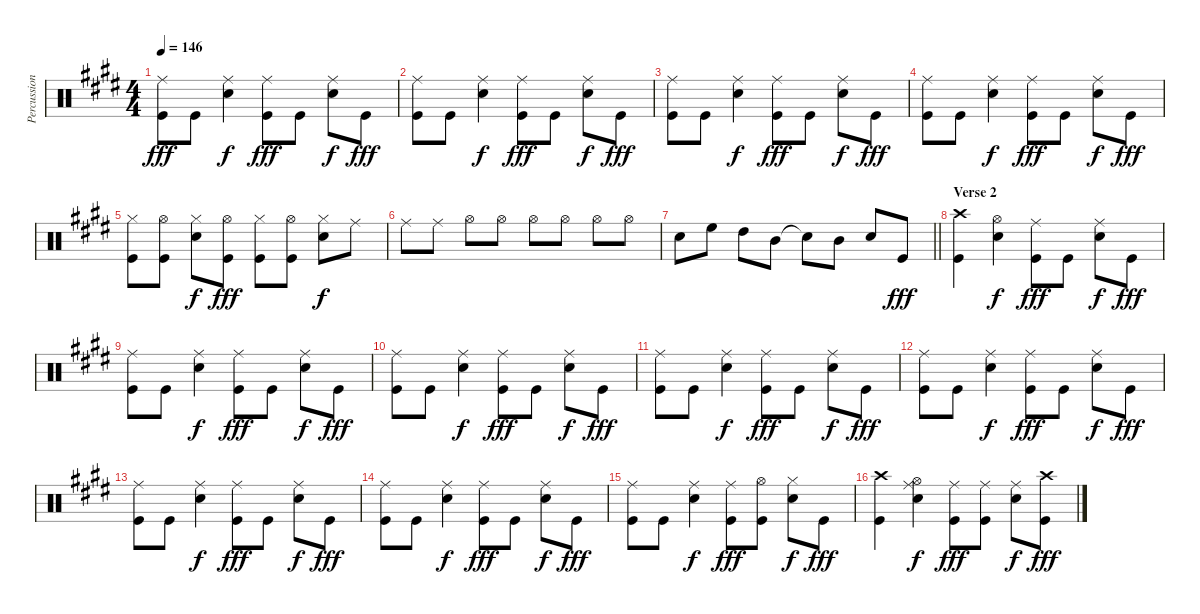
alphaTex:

\track ("Percussion" "Percussion") {instrument percussion}
\staff {score}
\articulation defaults
\ts (4 4)
\tempo 146
\clef neutral
\ks e
("Ride (middle)" "Kick (hit)").8{dy fff} "Kick (hit)".8 ("Ride (middle)" "Snare (hit) 2").4{dy f} ("Ride (middle)" "Kick (hit)").8{dy fff} "Kick (hit)".8 ("Ride (middle)" "Snare (hit) 2").8{dy f} "Kick (hit)".8{dy fff} |
("Ride (middle)" "Kick (hit)").8 "Kick (hit)".8 ("Ride (middle)" "Snare (hit) 2").4{dy f} ("Ride (middle)" "Kick (hit)").8{dy fff} "Kick (hit)".8 ("Ride (middle)" "Snare (hit) 2").8{dy f} "Kick (hit)".8{dy fff} |
("Ride (middle)" "Kick (hit)").8 "Kick (hit)".8 ("Ride (middle)" "Snare (hit) 2").4{dy f} ("Ride (middle)" "Kick (hit)").8{dy fff} "Kick (hit)".8 ("Ride (middle)" "Snare (hit) 2").8{dy f} "Kick (hit)".8{dy fff} |
("Ride (middle)" "Kick (hit)").8 "Kick (hit)".8 ("Ride (middle)" "Snare (hit) 2").4{dy f} ("Ride (middle)" "Kick (hit)").8{dy fff} "Kick (hit)".8 ("Ride (middle)" "Snare (hit) 2").8{dy f} "Kick (hit)".8{dy fff} |
("Hi-Hat (closed)" "Kick (hit)").8 ("Hi-Hat (open)" "Kick (hit)").8 ("Hi-Hat (closed)" "Snare (hit) 2").8{dy f} ("Hi-Hat (open)" "Kick (hit)").8{dy fff} ("Hi-Hat (closed)" "Kick (hit)").8 ("Hi-Hat (open)" "Kick (hit)").8 ("Hi-Hat (closed)" "Snare (hit) 2").8{dy f} "Ride (middle)".8 |
"Ride (middle)".8 "Ride (middle)".8 "Hi-Hat (open)".8 "Hi-Hat (open)".8 "Hi-Hat (open)".8 "Hi-Hat (open)".8 "Hi-Hat (open)".8 "Hi-Hat (open)".8 |
\barLineRight lightlight "Snare (hit) 2".8 "High Floor Tom (hit)".8 "High Tom (hit)".8 "Mid Tom (hit)".8 "Snare (hit)"{t}.8 "Mid Tom (hit)".8 "Snare (hit) 2".8 "Kick (hit)".8{dy fff}
|
\section ("" "Verse 2")
("Crash high (hit)" "Kick (hit)").4 ("Hi-Hat (open)" "Snare (hit) 2").4{dy f} ("Ride (middle)" "Kick (hit)").8{dy fff} "Kick (hit)".8 ("Ride (middle)" "Snare (hit) 2").8{dy f} "Kick (hit)".8{dy fff} |
("Ride (middle)" "Kick (hit)").8 "Kick (hit)".8 ("Ride (middle)" "Snare (hit) 2").4{dy f} ("Ride (middle)" "Kick (hit)").8{dy fff} "Kick (hit)".8 ("Ride (middle)" "Snare (hit) 2").8{dy f} "Kick (hit)".8{dy fff} |
("Ride (middle)" "Kick (hit)").8 "Kick (hit)".8 ("Ride (middle)" "Snare (hit) 2").4{dy f} ("Ride (middle)" "Kick (hit)").8{dy fff} "Kick (hit)".8 ("Ride (middle)" "Snare (hit) 2").8{dy f} "Kick (hit)".8{dy fff} |
("Ride (middle)" "Kick (hit)").8 "Kick (hit)".8 ("Ride (middle)" "Snare (hit) 2").4{dy f} ("Ride (middle)" "Kick (hit)").8{dy fff} "Kick (hit)".8 ("Ride (middle)" "Snare (hit) 2").8{dy f} "Kick (hit)".8{dy fff} |
("Ride (middle)" "Kick (hit)").8 "Kick (hit)".8 ("Ride (middle)" "Snare (hit) 2").4{dy f} ("Ride (middle)" "Kick (hit)").8{dy fff} "Kick (hit)".8 ("Ride (middle)" "Snare (hit) 2").8{dy f} "Kick (hit)".8{dy fff} |
("Ride (middle)" "Kick (hit)").8 "Kick (hit)".8 ("Ride (middle)" "Snare (hit) 2").4{dy f} ("Ride (middle)" "Kick (hit)").8{dy fff} "Kick (hit)".8 ("Ride (middle)" "Snare (hit) 2").8{dy f} "Kick (hit)".8{dy fff} |
("Ride (middle)" "Kick (hit)").8 "Kick (hit)".8 ("Ride (middle)" "Snare (hit) 2").4{dy f} ("Ride (middle)" "Kick (hit)").8{dy fff} "Kick (hit)".8 ("Ride (middle)" "Snare (hit) 2").8{dy f} "Kick (hit)".8{dy fff} |
("Ride (middle)" "Kick (hit)").8 "Kick (hit)".8 ("Ride (middle)" "Snare (hit) 2").4{dy f} ("Ride (middle)" "Kick (hit)").8{dy fff} ("Hi-Hat (open)" "Kick (hit)").8 ("Hi-Hat (closed)" "Snare (hit) 2").8{dy f} "Kick (hit)".8{dy fff} |
("Crash high (hit)" "Kick (hit)").4 ("Hi-Hat (open)" "Ride (middle)" "Snare (hit) 2").4{dy f} ("Ride (middle)" "Kick (hit)").8{dy fff} ("Ride (middle)" "Kick (hit)").8 ("Ride (middle)" "Snare (hit) 2").8{dy f} ("Crash high (hit)" "Kick (hit)").8{dy fff}
